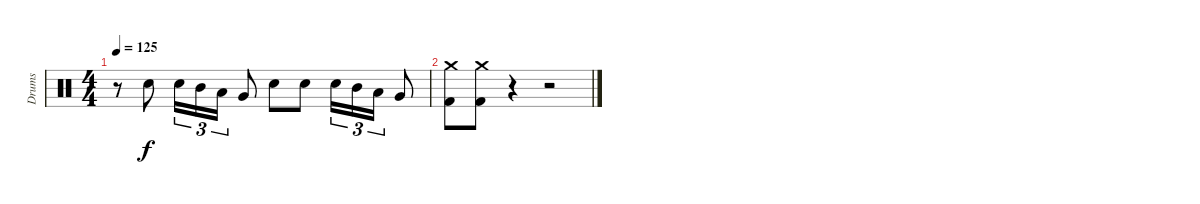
\track ("Drums" "Drums") {instrument percussion}
\staff {score}
\articulation defaults
\ts (4 4)
\tempo 125
\clef neutral
\ks c
r.8{dy f} "Electric Snare (hit)".8 "Electric Snare (hit)".16{tu (3 2)} "Mid Tom (hit)".16{tu (3 2)} "Low Tom (hit)".16{tu (3 2)} "Very Low Tom (hit)".8 "Electric Snare (hit)".8 "Electric Snare (hit)".8 "Electric Snare (hit)".16{tu (3 2)} "Mid Tom (hit)".16{tu (3 2)} "Low Tom (hit)".16{tu (3 2)} "Very Low Tom (hit)".8 |
("Crash medium (hit)" "Kick (hit) 2").8 ("Crash medium (hit)" "Kick (hit) 2").8 r.4 r.2
